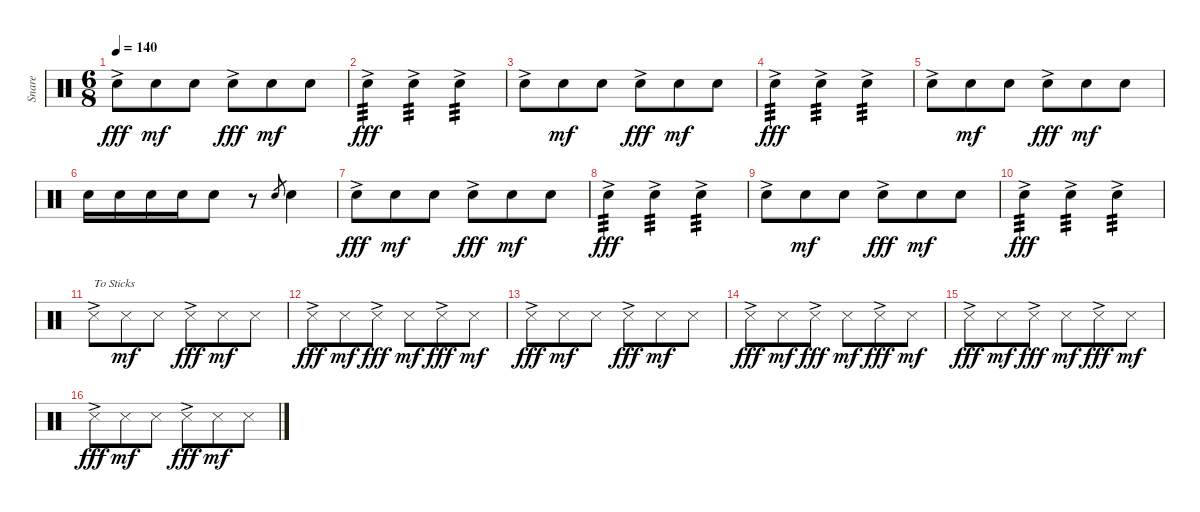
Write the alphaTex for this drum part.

\track ("Snare" "Snare") {instrument percussion}
\staff {score}
\articulation defaults
\ts (6 8)
\tempo 140
\clef neutral
\ks c "Electric Snare (hit)"{ac}.8{dy fff} "Electric Snare (hit)".8{dy mf} "Electric Snare (hit)".8 "Electric Snare (hit)"{ac}.8{dy fff} "Electric Snare (hit)".8{dy mf} "Electric Snare (hit)".8
|
"Electric Snare (hit)"{ac}.4{tp 3 dy fff} "Electric Snare (hit)"{ac}.4{tp 3} "Electric Snare (hit)"{ac}.4{tp 3} |
"Electric Snare (hit)"{ac}.8 "Electric Snare (hit)".8{dy mf} "Electric Snare (hit)".8 "Electric Snare (hit)"{ac}.8{dy fff} "Electric Snare (hit)".8{dy mf} "Electric Snare (hit)".8 |
"Electric Snare (hit)"{ac}.4{tp 3 dy fff} "Electric Snare (hit)"{ac}.4{tp 3} "Electric Snare (hit)"{ac}.4{tp 3} |
"Electric Snare (hit)"{ac}.8 "Electric Snare (hit)".8{dy mf} "Electric Snare (hit)".8 "Electric Snare (hit)"{ac}.8{dy fff} "Electric Snare (hit)".8{dy mf} "Electric Snare (hit)".8 |
"Electric Snare (hit)".16 "Electric Snare (hit)".16 "Electric Snare (hit)".16 "Electric Snare (hit)".16 "Electric Snare (hit)".8 r.8 "Electric Snare (hit)".8{gr} "Electric Snare (hit)".4 |
"Electric Snare (hit)"{ac}.8{dy fff} "Electric Snare (hit)".8{dy mf} "Electric Snare (hit)".8 "Electric Snare (hit)"{ac}.8{dy fff} "Electric Snare (hit)".8{dy mf} "Electric Snare (hit)".8 |
"Electric Snare (hit)"{ac}.4{tp 3 dy fff} "Electric Snare (hit)"{ac}.4{tp 3} "Electric Snare (hit)"{ac}.4{tp 3} |
"Electric Snare (hit)"{ac}.8 "Electric Snare (hit)".8{dy mf} "Electric Snare (hit)".8 "Electric Snare (hit)"{ac}.8{dy fff} "Electric Snare (hit)".8{dy mf} "Electric Snare (hit)".8 |
"Electric Snare (hit)"{ac}.4{tp 3 dy fff} "Electric Snare (hit)"{ac}.4{tp 3} "Electric Snare (hit)"{ac}.4{tp 3} |
"Snare (side stick) 3"{ac}.8{txt "To Sticks"} "Snare (side stick) 3".8{dy mf} "Snare (side stick) 3".8 "Snare (side stick) 3"{ac}.8{dy fff} "Snare (side stick) 3".8{dy mf} "Snare (side stick) 3".8 |
"Snare (side stick) 3"{ac}.8{dy fff} "Snare (side stick) 3".8{dy mf} "Snare (side stick) 3"{ac}.8{dy fff} "Snare (side stick) 3".8{dy mf} "Snare (side stick) 3"{ac}.8{dy fff} "Snare (side stick) 3".8{dy mf} |
"Snare (side stick) 3"{ac}.8{dy fff} "Snare (side stick) 3".8{dy mf} "Snare (side stick) 3".8 "Snare (side stick) 3"{ac}.8{dy fff} "Snare (side stick) 3".8{dy mf} "Snare (side stick) 3".8 |
"Snare (side stick) 3"{ac}.8{dy fff} "Snare (side stick) 3".8{dy mf} "Snare (side stick) 3"{ac}.8{dy fff} "Snare (side stick) 3".8{dy mf} "Snare (side stick) 3"{ac}.8{dy fff} "Snare (side stick) 3".8{dy mf} |
"Snare (side stick) 3"{ac}.8{dy fff} "Snare (side stick) 3".8{dy mf} "Snare (side stick) 3"{ac}.8{dy fff} "Snare (side stick) 3".8{dy mf} "Snare (side stick) 3"{ac}.8{dy fff} "Snare (side stick) 3".8{dy mf} |
"Snare (side stick) 3"{ac}.8{dy fff} "Snare (side stick) 3".8{dy mf} "Snare (side stick) 3".8 "Snare (side stick) 3"{ac}.8{dy fff} "Snare (side stick) 3".8{dy mf} "Snare (side stick) 3".8
